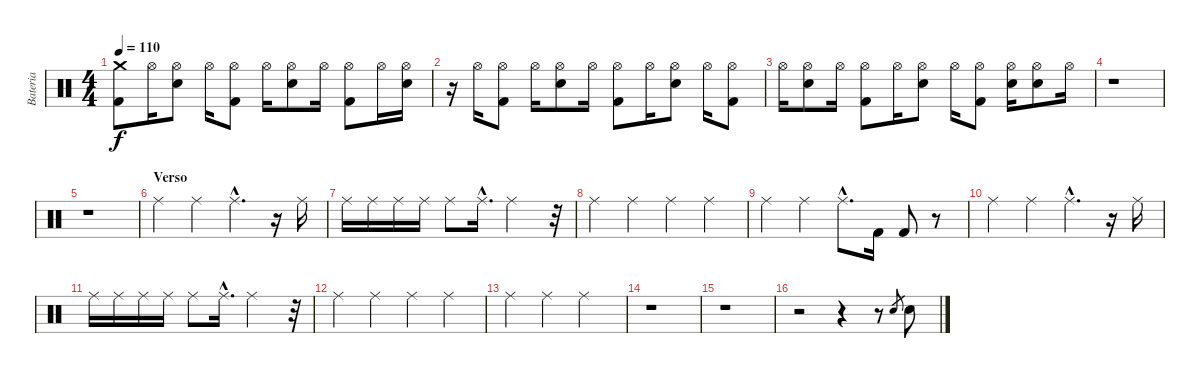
\track ("Bateria" "Bateria") {instrument percussion}
\staff {score}
\articulation defaults
\ts (4 4)
\tempo 110
\clef neutral
\ks c
("Crash medium (hit)" "Kick (hit) 2").8{dy f} "Hi-Hat (open)".16 ("Hi-Hat (open)" "Snare (hit) 2").8 "Hi-Hat (open)".16 ("Hi-Hat (open)" "Kick (hit) 2").8 "Hi-Hat (open)".16 ("Hi-Hat (open)" "Snare (hit) 2").8 "Hi-Hat (open)".16 ("Hi-Hat (open)" "Kick (hit) 2").8 "Hi-Hat (open)".16 ("Hi-Hat (open)" "Snare (hit) 2").16 |
r.16 "Hi-Hat (open)".16 ("Hi-Hat (open)" "Kick (hit) 2").8 "Hi-Hat (open)".16 ("Hi-Hat (open)" "Snare (hit) 2").8 "Hi-Hat (open)".16 ("Hi-Hat (open)" "Kick (hit) 2").8 "Hi-Hat (open)".16 ("Hi-Hat (open)" "Snare (hit) 2").8 "Hi-Hat (open)".16 ("Hi-Hat (open)" "Kick (hit) 2").8 |
"Hi-Hat (open)".16 ("Hi-Hat (open)" "Snare (hit) 2").8 "Hi-Hat (open)".16 ("Hi-Hat (open)" "Kick (hit) 2").8 "Hi-Hat (open)".16 ("Hi-Hat (open)" "Snare (hit) 2").8 "Hi-Hat (open)".16 ("Hi-Hat (open)" "Kick (hit) 2").8 ("Hi-Hat (open)" "Snare (hit) 2").16 ("Hi-Hat (open)" "Snare (hit) 2").8 "Hi-Hat (open)".16 |
r.1 |
r.1 |
\section ("" "Verso")
"Ride (middle)".4 "Ride (middle)".4 "Ride (middle)"{hac}.4{d} r.16 "Ride (middle)".16 |
"Ride (middle)".16 "Ride (middle)".16 "Ride (middle)".16 "Ride (middle)".16 "Ride (middle)".8 "Ride (middle)"{hac}.16{d} "Ride (middle)".2 r.32 |
"Ride (middle)".4 "Ride (middle)".4 "Ride (middle)".4 "Ride (middle)".4 |
"Ride (middle)".4 "Ride (middle)".4 "Ride (middle)"{hac}.8{d} "Kick (hit) 2".16 "Kick (hit) 2".8 r.8 |
"Ride (middle)".4 "Ride (middle)".4 "Ride (middle)"{hac}.4{d} r.16 "Ride (middle)".16 |
"Ride (middle)".16 "Ride (middle)".16 "Ride (middle)".16 "Ride (middle)".16 "Ride (middle)".8 "Ride (middle)"{hac}.16{d} "Ride (middle)".2 r.32 |
"Ride (middle)".4 "Ride (middle)".4 "Ride (middle)".4 "Ride (middle)".4 |
"Ride (middle)".4 "Ride (middle)".4 "Ride (middle)".2 |
r.1 |
r.1 |
r.2 r.4 r.8 "Snare (hit) 2".8{gr} "Snare (hit) 2".8
